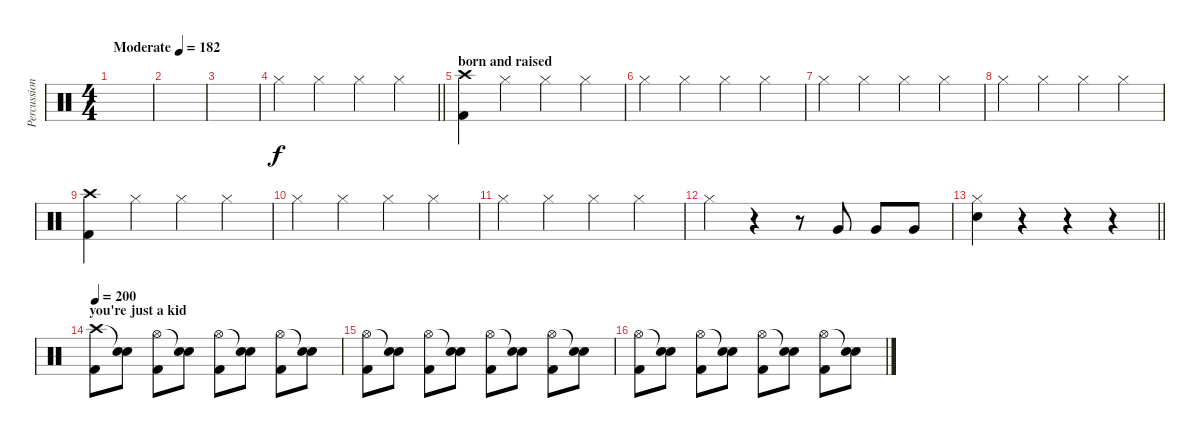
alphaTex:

\track ("Percussioni" "Percussion") {instrument percussion}
\staff {score}
\articulation defaults
\ts (4 4)
\tempo (182 "Moderate")
\clef neutral
\ks c
|
|
|
\barLineRight lightlight "Hi-Hat (closed)".4 "Hi-Hat (closed)".4 "Hi-Hat (closed)".4 "Hi-Hat (closed)".4
|
\section ("" "born and raised")
("Crash high (hit)" "Kick (hit) 2").4 "Hi-Hat (closed)".4 "Hi-Hat (closed)".4 "Hi-Hat (closed)".4 |
"Hi-Hat (closed)".4 "Hi-Hat (closed)".4 "Hi-Hat (closed)".4 "Hi-Hat (closed)".4 |
"Hi-Hat (closed)".4 "Hi-Hat (closed)".4 "Hi-Hat (closed)".4 "Hi-Hat (closed)".4 |
"Hi-Hat (closed)".4 "Hi-Hat (closed)".4 "Hi-Hat (closed)".4 "Hi-Hat (closed)".4 |
("Crash high (hit)" "Kick (hit) 2").4 "Hi-Hat (closed)".4 "Hi-Hat (closed)".4 "Hi-Hat (closed)".4 |
"Hi-Hat (closed)".4 "Hi-Hat (closed)".4 "Hi-Hat (closed)".4 "Hi-Hat (closed)".4 |
"Hi-Hat (closed)".4 "Hi-Hat (closed)".4 "Hi-Hat (closed)".4 "Hi-Hat (closed)".4 |
"Hi-Hat (closed)".4 r.4 r.8 "Very Low Tom (hit)".8 "Very Low Tom (hit)".8 "Very Low Tom (hit)".8 |
\barLineRight lightlight
("Hi-Hat (closed)" "Snare (hit) 2").4 r.4 r.4 r.4 |
\section ("" "you're just a kid")
\tempo 200
("Crash high (hit)" "Kick (hit) 2").8 ("Snare (hit)"{t} "Snare (hit) 2").8 ("Hi-Hat (open)" "Kick (hit) 2").8 ("Snare (hit)"{t} "Snare (hit) 2").8 ("Hi-Hat (open)" "Kick (hit) 2").8 ("Snare (hit)"{t} "Snare (hit) 2").8 ("Hi-Hat (open)" "Kick (hit) 2").8 ("Snare (hit)"{t} "Snare (hit) 2").8 |
("Hi-Hat (open)" "Kick (hit) 2").8 ("Snare (hit)"{t} "Snare (hit) 2").8 ("Hi-Hat (open)" "Kick (hit) 2").8 ("Snare (hit)"{t} "Snare (hit) 2").8 ("Hi-Hat (open)" "Kick (hit) 2").8 ("Snare (hit)"{t} "Snare (hit) 2").8 ("Hi-Hat (open)" "Kick (hit) 2").8 ("Snare (hit)"{t} "Snare (hit) 2").8 |
("Hi-Hat (open)" "Kick (hit) 2").8 ("Snare (hit)"{t} "Snare (hit) 2").8 ("Hi-Hat (open)" "Kick (hit) 2").8 ("Snare (hit)"{t} "Snare (hit) 2").8 ("Hi-Hat (open)" "Kick (hit) 2").8 ("Snare (hit)"{t} "Snare (hit) 2").8 ("Hi-Hat (open)" "Kick (hit) 2").8 ("Snare (hit)"{t} "Snare (hit) 2").8
